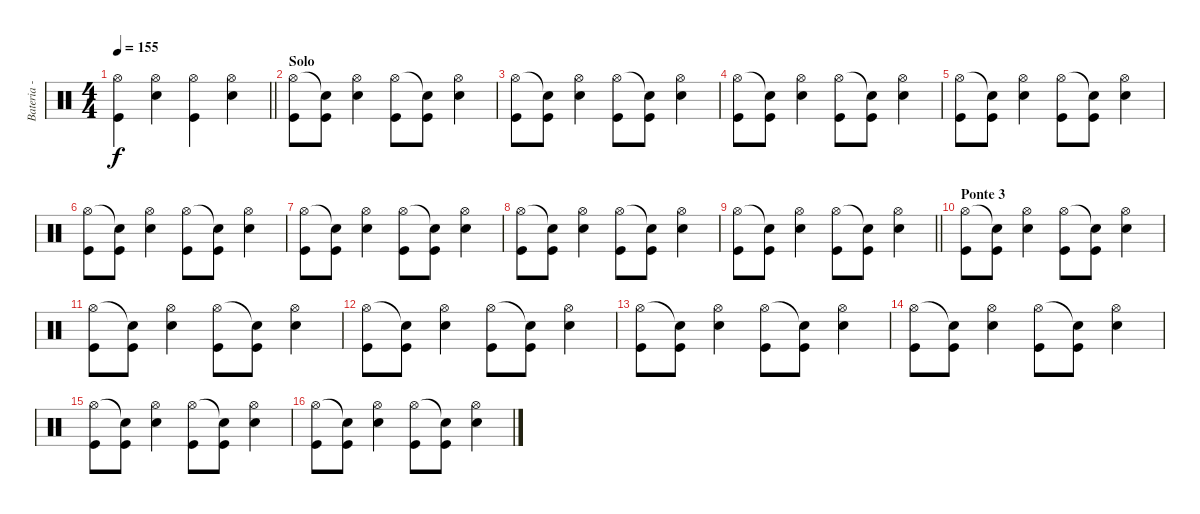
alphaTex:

\track ("Bateria - Craig Nunumacher" "Bateria - ") {instrument percussion}
\staff {score}
\articulation defaults
\ts (4 4)
\tempo 155
\clef neutral
\barLineRight lightlight
\ks c
("Hi-Hat (open)" "Kick (hit)").4{dy f} ("Hi-Hat (open)" "Electric Snare (hit)").4 ("Hi-Hat (open)" "Kick (hit)").4 ("Hi-Hat (open)" "Electric Snare (hit)").4 |
\section ("" "Solo")
("Hi-Hat (open)" "Kick (hit)").8 ("Snare (hit)"{t} "Kick (hit)").8 ("Hi-Hat (open)" "Electric Snare (hit)").4 ("Hi-Hat (open)" "Kick (hit)").8 ("Snare (hit)"{t} "Kick (hit)").8 ("Hi-Hat (open)" "Electric Snare (hit)").4 |
("Hi-Hat (open)" "Kick (hit)").8 ("Snare (hit)"{t} "Kick (hit)").8 ("Hi-Hat (open)" "Electric Snare (hit)").4 ("Hi-Hat (open)" "Kick (hit)").8 ("Snare (hit)"{t} "Kick (hit)").8 ("Hi-Hat (open)" "Electric Snare (hit)").4 |
("Hi-Hat (open)" "Kick (hit)").8 ("Snare (hit)"{t} "Kick (hit)").8 ("Hi-Hat (open)" "Electric Snare (hit)").4 ("Hi-Hat (open)" "Kick (hit)").8 ("Snare (hit)"{t} "Kick (hit)").8 ("Hi-Hat (open)" "Electric Snare (hit)").4 |
("Hi-Hat (open)" "Kick (hit)").8 ("Snare (hit)"{t} "Kick (hit)").8 ("Hi-Hat (open)" "Electric Snare (hit)").4 ("Hi-Hat (open)" "Kick (hit)").8 ("Snare (hit)"{t} "Kick (hit)").8 ("Hi-Hat (open)" "Electric Snare (hit)").4 |
("Hi-Hat (open)" "Kick (hit)").8 ("Snare (hit)"{t} "Kick (hit)").8 ("Hi-Hat (open)" "Electric Snare (hit)").4 ("Hi-Hat (open)" "Kick (hit)").8 ("Snare (hit)"{t} "Kick (hit)").8 ("Hi-Hat (open)" "Electric Snare (hit)").4 |
("Hi-Hat (open)" "Kick (hit)").8 ("Snare (hit)"{t} "Kick (hit)").8 ("Hi-Hat (open)" "Electric Snare (hit)").4 ("Hi-Hat (open)" "Kick (hit)").8 ("Snare (hit)"{t} "Kick (hit)").8 ("Hi-Hat (open)" "Electric Snare (hit)").4 |
("Hi-Hat (open)" "Kick (hit)").8 ("Snare (hit)"{t} "Kick (hit)").8 ("Hi-Hat (open)" "Electric Snare (hit)").4 ("Hi-Hat (open)" "Kick (hit)").8 ("Snare (hit)"{t} "Kick (hit)").8 ("Hi-Hat (open)" "Electric Snare (hit)").4 |
\barLineRight lightlight
("Hi-Hat (open)" "Kick (hit)").8 ("Snare (hit)"{t} "Kick (hit)").8 ("Hi-Hat (open)" "Electric Snare (hit)").4 ("Hi-Hat (open)" "Kick (hit)").8 ("Snare (hit)"{t} "Kick (hit)").8 ("Hi-Hat (open)" "Electric Snare (hit)").4 |
\section ("" "Ponte 3")
("Hi-Hat (open)" "Kick (hit)").8 ("Snare (hit)"{t} "Kick (hit)").8 ("Hi-Hat (open)" "Electric Snare (hit)").4 ("Hi-Hat (open)" "Kick (hit)").8 ("Snare (hit)"{t} "Kick (hit)").8 ("Hi-Hat (open)" "Electric Snare (hit)").4 |
("Hi-Hat (open)" "Kick (hit)").8 ("Snare (hit)"{t} "Kick (hit)").8 ("Hi-Hat (open)" "Electric Snare (hit)").4 ("Hi-Hat (open)" "Kick (hit)").8 ("Snare (hit)"{t} "Kick (hit)").8 ("Hi-Hat (open)" "Electric Snare (hit)").4 |
("Hi-Hat (open)" "Kick (hit)").8 ("Snare (hit)"{t} "Kick (hit)").8 ("Hi-Hat (open)" "Electric Snare (hit)").4 ("Hi-Hat (open)" "Kick (hit)").8 ("Snare (hit)"{t} "Kick (hit)").8 ("Hi-Hat (open)" "Electric Snare (hit)").4 |
("Hi-Hat (open)" "Kick (hit)").8 ("Snare (hit)"{t} "Kick (hit)").8 ("Hi-Hat (open)" "Electric Snare (hit)").4 ("Hi-Hat (open)" "Kick (hit)").8 ("Snare (hit)"{t} "Kick (hit)").8 ("Hi-Hat (open)" "Electric Snare (hit)").4 |
("Hi-Hat (open)" "Kick (hit)").8 ("Snare (hit)"{t} "Kick (hit)").8 ("Hi-Hat (open)" "Electric Snare (hit)").4 ("Hi-Hat (open)" "Kick (hit)").8 ("Snare (hit)"{t} "Kick (hit)").8 ("Hi-Hat (open)" "Electric Snare (hit)").4 |
("Hi-Hat (open)" "Kick (hit)").8 ("Snare (hit)"{t} "Kick (hit)").8 ("Hi-Hat (open)" "Electric Snare (hit)").4 ("Hi-Hat (open)" "Kick (hit)").8 ("Snare (hit)"{t} "Kick (hit)").8 ("Hi-Hat (open)" "Electric Snare (hit)").4 |
("Hi-Hat (open)" "Kick (hit)").8 ("Snare (hit)"{t} "Kick (hit)").8 ("Hi-Hat (open)" "Electric Snare (hit)").4 ("Hi-Hat (open)" "Kick (hit)").8 ("Snare (hit)"{t} "Kick (hit)").8 ("Hi-Hat (open)" "Electric Snare (hit)").4
